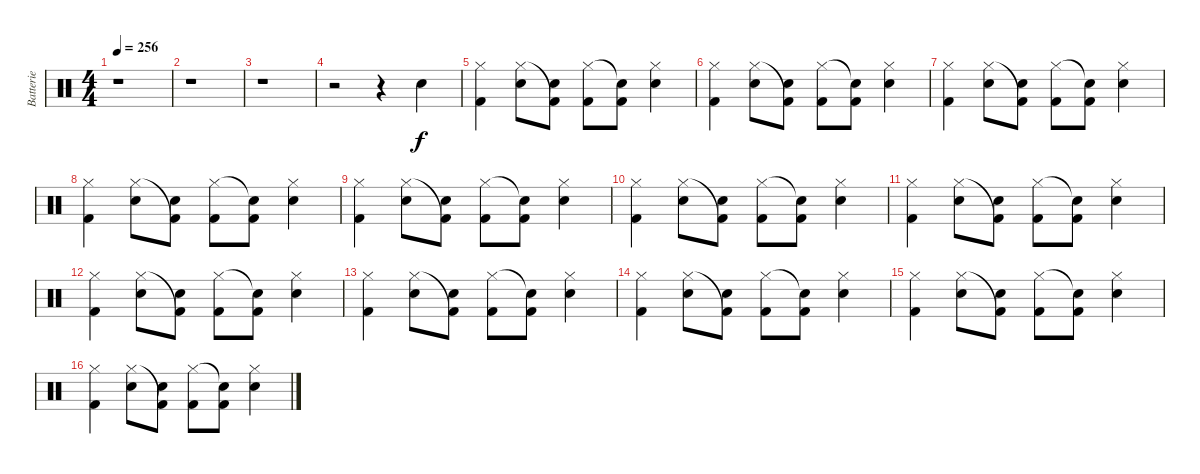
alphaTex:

\track ("Batterie" "Batterie") {instrument percussion}
\staff {score}
\articulation defaults
\ts (4 4)
\tempo 256
\clef neutral
\ks c
r.1{dy f} |
r.1 |
r.1 |
r.2 r.4 "Snare (hit) 2".4 |
("Hi-Hat (closed)" "Kick (hit) 2").4 ("Hi-Hat (closed)" "Snare (hit) 2").8 ("Kick (hit) 2"{t} "Snare (hit) 2").8 ("Hi-Hat (closed)" "Kick (hit) 2").8 ("Snare (hit)"{t} "Kick (hit) 2").8 ("Hi-Hat (closed)" "Snare (hit) 2").4 |
("Hi-Hat (closed)" "Kick (hit) 2").4 ("Hi-Hat (closed)" "Snare (hit) 2").8 ("Kick (hit) 2"{t} "Snare (hit) 2").8 ("Hi-Hat (closed)" "Kick (hit) 2").8 ("Snare (hit)"{t} "Kick (hit) 2").8 ("Hi-Hat (closed)" "Snare (hit) 2").4 |
("Hi-Hat (closed)" "Kick (hit) 2").4 ("Hi-Hat (closed)" "Snare (hit) 2").8 ("Kick (hit) 2"{t} "Snare (hit) 2").8 ("Hi-Hat (closed)" "Kick (hit) 2").8 ("Snare (hit)"{t} "Kick (hit) 2").8 ("Hi-Hat (closed)" "Snare (hit) 2").4 |
("Hi-Hat (closed)" "Kick (hit) 2").4 ("Hi-Hat (closed)" "Snare (hit) 2").8 ("Kick (hit) 2"{t} "Snare (hit) 2").8 ("Hi-Hat (closed)" "Kick (hit) 2").8 ("Snare (hit)"{t} "Kick (hit) 2").8 ("Hi-Hat (closed)" "Snare (hit) 2").4 |
("Hi-Hat (closed)" "Kick (hit) 2").4 ("Hi-Hat (closed)" "Snare (hit) 2").8 ("Kick (hit) 2"{t} "Snare (hit) 2").8 ("Hi-Hat (closed)" "Kick (hit) 2").8 ("Snare (hit)"{t} "Kick (hit) 2").8 ("Hi-Hat (closed)" "Snare (hit) 2").4 |
("Hi-Hat (closed)" "Kick (hit) 2").4 ("Hi-Hat (closed)" "Snare (hit) 2").8 ("Kick (hit) 2"{t} "Snare (hit) 2").8 ("Hi-Hat (closed)" "Kick (hit) 2").8 ("Snare (hit)"{t} "Kick (hit) 2").8 ("Hi-Hat (closed)" "Snare (hit) 2").4 |
("Hi-Hat (closed)" "Kick (hit) 2").4 ("Hi-Hat (closed)" "Snare (hit) 2").8 ("Kick (hit) 2"{t} "Snare (hit) 2").8 ("Hi-Hat (closed)" "Kick (hit) 2").8 ("Snare (hit)"{t} "Kick (hit) 2").8 ("Hi-Hat (closed)" "Snare (hit) 2").4 |
("Hi-Hat (closed)" "Kick (hit) 2").4 ("Hi-Hat (closed)" "Snare (hit) 2").8 ("Kick (hit) 2"{t} "Snare (hit) 2").8 ("Hi-Hat (closed)" "Kick (hit) 2").8 ("Snare (hit)"{t} "Kick (hit) 2").8 ("Hi-Hat (closed)" "Snare (hit) 2").4 |
("Hi-Hat (closed)" "Kick (hit) 2").4 ("Hi-Hat (closed)" "Snare (hit) 2").8 ("Kick (hit) 2"{t} "Snare (hit) 2").8 ("Hi-Hat (closed)" "Kick (hit) 2").8 ("Snare (hit)"{t} "Kick (hit) 2").8 ("Hi-Hat (closed)" "Snare (hit) 2").4 |
("Hi-Hat (closed)" "Kick (hit) 2").4 ("Hi-Hat (closed)" "Snare (hit) 2").8 ("Kick (hit) 2"{t} "Snare (hit) 2").8 ("Hi-Hat (closed)" "Kick (hit) 2").8 ("Snare (hit)"{t} "Kick (hit) 2").8 ("Hi-Hat (closed)" "Snare (hit) 2").4 |
("Hi-Hat (closed)" "Kick (hit) 2").4 ("Hi-Hat (closed)" "Snare (hit) 2").8 ("Kick (hit) 2"{t} "Snare (hit) 2").8 ("Hi-Hat (closed)" "Kick (hit) 2").8 ("Snare (hit)"{t} "Kick (hit) 2").8 ("Hi-Hat (closed)" "Snare (hit) 2").4 |
("Hi-Hat (closed)" "Kick (hit) 2").4 ("Hi-Hat (closed)" "Snare (hit) 2").8 ("Kick (hit) 2"{t} "Snare (hit) 2").8 ("Hi-Hat (closed)" "Kick (hit) 2").8 ("Snare (hit)"{t} "Kick (hit) 2").8 ("Hi-Hat (closed)" "Snare (hit) 2").4
